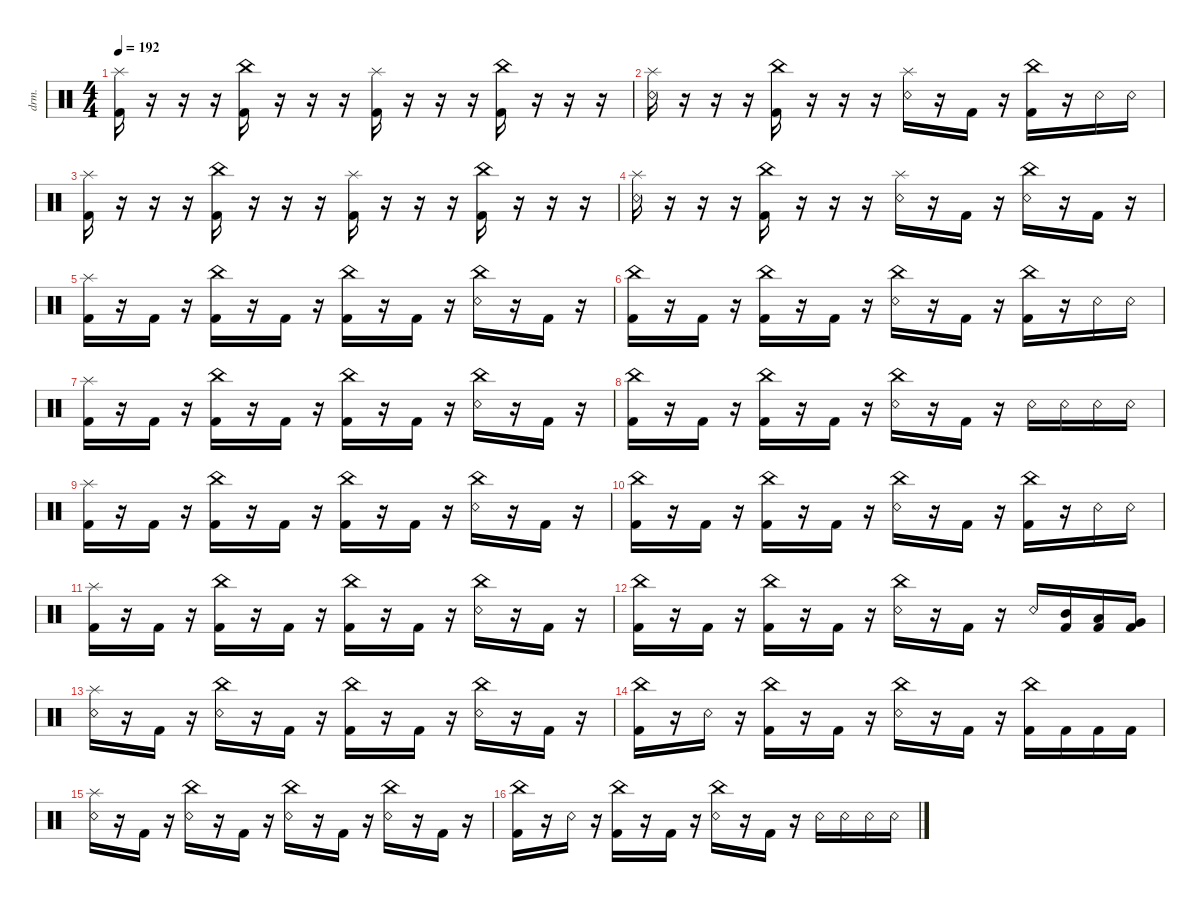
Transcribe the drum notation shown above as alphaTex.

\defaultSystemsLayout 4
\hideDynamics
\bracketExtendMode nobrackets
\otherSystemsTrackNameOrientation horizontal
\track ("Drumkit" "drm.") {instrument percussion}
\staff {score}
\articulation defaults
\ts (4 4)
\tempo 192
\clef neutral
\ks c
("Kick (hit) 2" "Splash (hit)").16{dy ff beam Down} r.16{beam Down} r.16{beam Down} r.16{beam Down} ("Kick (hit) 2" "China (hit)").16{beam Down} r.16{beam Down} r.16{beam Down} r.16{beam Down} ("Kick (hit) 2" "Splash (hit)").16{beam Down} r.16{beam Down} r.16{beam Down} r.16{beam Down} ("Kick (hit) 2" "China (hit)").16{beam Down} r.16{beam Down} r.16{beam Down} r.16{beam Down} |
("Snare (rim shot)" "Splash (hit)").16{beam Down} r.16{beam Down} r.16{beam Down} r.16{beam Down} ("Kick (hit) 2" "China (hit)").16{beam Down} r.16{beam Down} r.16{beam Down} r.16{beam Down} ("Splash (hit)" "Snare (rim shot)").16{beam Down} r.16{beam Down} "Kick (hit) 2".16{beam Down} r.16{beam Down} ("Kick (hit) 2" "China (hit)").16{beam Down} r.16{beam Down} "Snare (rim shot)".16{beam Down} "Snare (rim shot)".16{beam Down} |
("Kick (hit) 2" "Splash (hit)").16{beam Down} r.16{beam Down} r.16{beam Down} r.16{beam Down} ("Kick (hit) 2" "China (hit)").16{beam Down} r.16{beam Down} r.16{beam Down} r.16{beam Down} ("Kick (hit) 2" "Splash (hit)").16{beam Down} r.16{beam Down} r.16{beam Down} r.16{beam Down} ("Kick (hit) 2" "China (hit)").16{beam Down} r.16{beam Down} r.16{beam Down} r.16{beam Down} |
("Snare (rim shot)" "Splash (hit)").16{beam Down} r.16{beam Down} r.16{beam Down} r.16{beam Down} ("Kick (hit) 2" "China (hit)").16{beam Down} r.16{beam Down} r.16{beam Down} r.16{beam Down} ("Splash (hit)" "Snare (rim shot)").16{beam Down} r.16{beam Down} "Kick (hit) 2".16{beam Down} r.16{beam Down} ("China (hit)" "Snare (rim shot)").16{beam Down} r.16{beam Down} "Kick (hit) 2".16{beam Down} r.16{beam Down} |
("Kick (hit) 2" "Splash (hit)").16{beam Down} r.16{beam Down} "Kick (hit) 2".16{beam Down} r.16{beam Down} ("Kick (hit) 2" "China (hit)").16{beam Down} r.16{beam Down} "Kick (hit) 2".16{beam Down} r.16{beam Down} ("Kick (hit) 2" "China (hit)").16{beam Down} r.16{beam Down} "Kick (hit) 2".16{beam Down} r.16{beam Down} ("Snare (rim shot)" "China (hit)").16{beam Down} r.16{beam Down} "Kick (hit) 2".16{beam Down} r.16{beam Down} |
("Kick (hit) 2" "China (hit)").16{beam Down} r.16{beam Down} "Kick (hit) 2".16{beam Down} r.16{beam Down} ("Kick (hit) 2" "China (hit)").16{beam Down} r.16{beam Down} "Kick (hit) 2".16{beam Down} r.16{beam Down} ("Snare (rim shot)" "China (hit)").16{beam Down} r.16{beam Down} "Kick (hit) 2".16{beam Down} r.16{beam Down} ("Kick (hit) 2" "China (hit)").16{beam Down} r.16{beam Down} "Snare (rim shot)".16{beam Down} "Snare (rim shot)".16{beam Down} |
("Kick (hit) 2" "Splash (hit)").16{beam Down} r.16{beam Down} "Kick (hit) 2".16{beam Down} r.16{beam Down} ("Kick (hit) 2" "China (hit)").16{beam Down} r.16{beam Down} "Kick (hit) 2".16{beam Down} r.16{beam Down} ("Kick (hit) 2" "China (hit)").16{beam Down} r.16{beam Down} "Kick (hit) 2".16{beam Down} r.16{beam Down} ("Snare (rim shot)" "China (hit)").16{beam Down} r.16{beam Down} "Kick (hit) 2".16{beam Down} r.16{beam Down} |
("Kick (hit) 2" "China (hit)").16{beam Down} r.16{beam Down} "Kick (hit) 2".16{beam Down} r.16{beam Down} ("Kick (hit) 2" "China (hit)").16{beam Down} r.16{beam Down} "Kick (hit) 2".16{beam Down} r.16{beam Down} ("Snare (rim shot)" "China (hit)").16{beam Down} r.16{beam Down} "Kick (hit) 2".16{beam Down} r.16{beam Down} "Snare (rim shot)".16{beam Down} "Snare (rim shot)".16{beam Down} "Snare (rim shot)".16{beam Down} "Snare (rim shot)".16{beam Down} |
("Kick (hit) 2" "Splash (hit)").16{beam Down} r.16{beam Down} "Kick (hit) 2".16{beam Down} r.16{beam Down} ("Kick (hit) 2" "China (hit)").16{beam Down} r.16{beam Down} "Kick (hit) 2".16{beam Down} r.16{beam Down} ("Kick (hit) 2" "China (hit)").16{beam Down} r.16{beam Down} "Kick (hit) 2".16{beam Down} r.16{beam Down} ("Snare (rim shot)" "China (hit)").16{beam Down} r.16{beam Down} "Kick (hit) 2".16{beam Down} r.16{beam Down} |
("Kick (hit) 2" "China (hit)").16{beam Down} r.16{beam Down} "Kick (hit) 2".16{beam Down} r.16{beam Down} ("Kick (hit) 2" "China (hit)").16{beam Down} r.16{beam Down} "Kick (hit) 2".16{beam Down} r.16{beam Down} ("Snare (rim shot)" "China (hit)").16{beam Down} r.16{beam Down} "Kick (hit) 2".16{beam Down} r.16{beam Down} ("Kick (hit) 2" "China (hit)").16{beam Down} r.16{beam Down} "Snare (rim shot)".16{beam Down} "Snare (rim shot)".16{beam Down} |
("Kick (hit) 2" "Splash (hit)").16{beam Down} r.16{beam Down} "Kick (hit) 2".16{beam Down} r.16{beam Down} ("Kick (hit) 2" "China (hit)").16{beam Down} r.16{beam Down} "Kick (hit) 2".16{beam Down} r.16{beam Down} ("Kick (hit) 2" "China (hit)").16{beam Down} r.16{beam Down} "Kick (hit) 2".16{beam Down} r.16{beam Down} ("Snare (rim shot)" "China (hit)").16{beam Down} r.16{beam Down} "Kick (hit) 2".16{beam Down} r.16{beam Down} |
("Kick (hit) 2" "China (hit)").16{beam Down} r.16{beam Down} "Kick (hit) 2".16{beam Down} r.16{beam Down} ("Kick (hit) 2" "China (hit)").16{beam Down} r.16{beam Down} "Kick (hit) 2".16{beam Down} r.16{beam Down} ("Snare (rim shot)" "China (hit)").16{beam Down} r.16{beam Down} "Kick (hit) 2".16{beam Down} r.16{beam Down} "Snare (rim shot)".16{beam Up} ("Mid Tom (hit)" "Kick (hit) 2").16{beam Up} ("Low Tom (hit)" "Kick (hit) 2").16{beam Up} ("Very Low Tom (hit)" "Kick (hit) 2").16{beam Up} |
("Snare (rim shot)" "Splash (hit)").16{beam Down} r.16{beam Down} "Kick (hit) 2".16{beam Down} r.16{beam Down} ("Snare (rim shot)" "China (hit)").16{beam Down} r.16{beam Down} "Kick (hit) 2".16{beam Down} r.16{beam Down} ("Kick (hit) 2" "China (hit)").16{beam Down} r.16{beam Down} "Kick (hit) 2".16{beam Down} r.16{beam Down} ("Snare (rim shot)" "China (hit)").16{beam Down} r.16{beam Down} "Kick (hit) 2".16{beam Down} r.16{beam Down} |
("Kick (hit) 2" "China (hit)").16{beam Down} r.16{beam Down} "Snare (rim shot)".16{beam Down} r.16{beam Down} ("Kick (hit) 2" "China (hit)").16{beam Down} r.16{beam Down} "Kick (hit) 2".16{beam Down} r.16{beam Down} ("Snare (rim shot)" "China (hit)").16{beam Down} r.16{beam Down} "Kick (hit) 2".16{beam Down} r.16{beam Down} ("Kick (hit) 2" "China (hit)").16{beam Down} "Kick (hit) 2".16{beam Down} "Kick (hit) 2".16{beam Down} "Kick (hit) 2".16{beam Down} |
("Splash (hit)" "Snare (rim shot)").16{beam Down} r.16{beam Down} "Kick (hit) 2".16{beam Down} r.16{beam Down} ("Snare (rim shot)" "China (hit)").16{beam Down} r.16{beam Down} "Kick (hit) 2".16{beam Down} r.16{beam Down} ("Snare (rim shot)" "China (hit)").16{beam Down} r.16{beam Down} "Kick (hit) 2".16{beam Down} r.16{beam Down} ("Snare (rim shot)" "China (hit)").16{beam Down} r.16{beam Down} "Kick (hit) 2".16{beam Down} r.16{beam Down} |
("Kick (hit) 2" "China (hit)").16{beam Down} r.16{beam Down} "Snare (rim shot)".16{beam Down} r.16{beam Down} ("Kick (hit) 2" "China (hit)").16{beam Down} r.16{beam Down} "Kick (hit) 2".16{beam Down} r.16{beam Down} ("Snare (rim shot)" "China (hit)").16{beam Down} r.16{beam Down} "Kick (hit) 2".16{beam Down} r.16{beam Down} "Snare (rim shot)".16{beam Down} "Snare (rim shot)".16{beam Down} "Snare (rim shot)".16{beam Down} "Snare (rim shot)".16{beam Down}
